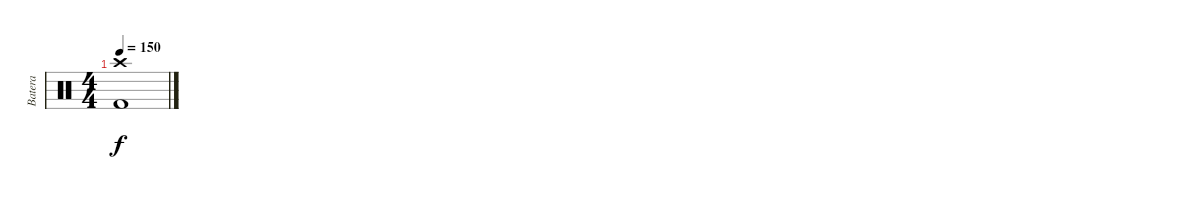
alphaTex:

\track ("Batera" "Batera") {instrument percussion}
\staff {score}
\articulation defaults
\ts (4 4)
\tempo 150
\clef neutral
\ks c
("Crash high (hit)" "Kick (hit) 2").1{dy f}
